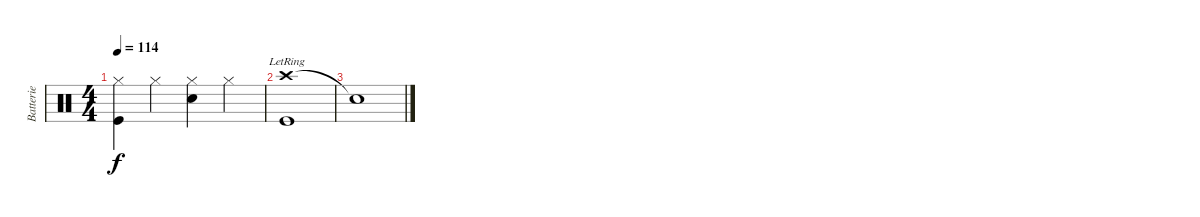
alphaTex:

\track ("Batterie" "Batterie") {instrument percussion}
\staff {score}
\articulation defaults
\ts (4 4)
\tempo 114
\clef neutral
\ks c
("Hi-Hat (closed)" "Kick (hit)").4{dy f} "Hi-Hat (closed)".4 ("Hi-Hat (closed)" "Snare (hit) 2").4 "Hi-Hat (closed)".4 |
("Crash high (hit)"{lr} "Kick (hit)").1 |
"Snare (hit)"{t}.1
